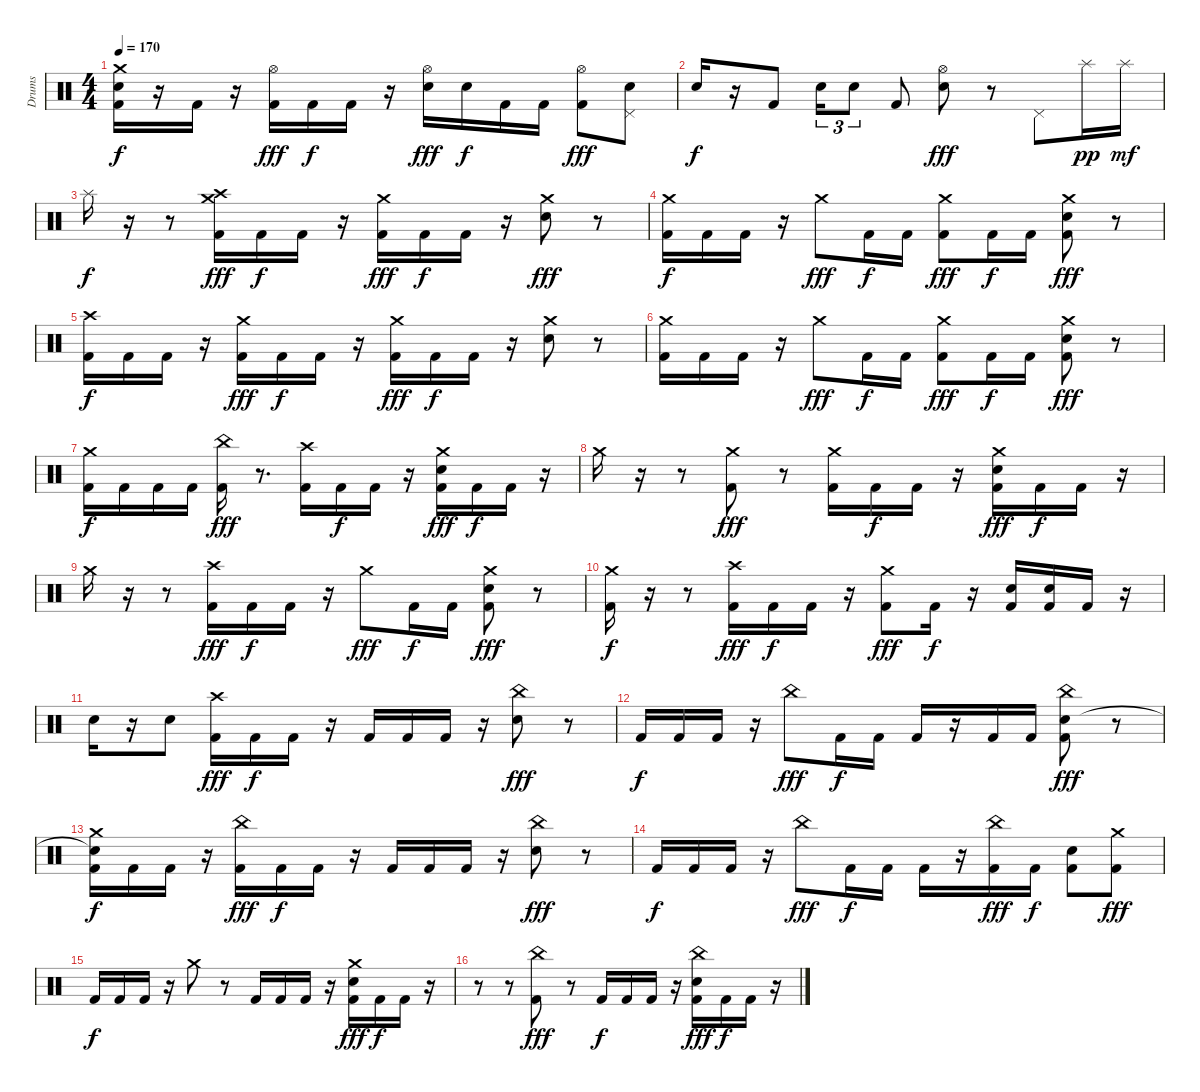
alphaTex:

\track ("Drums" "Drums") {instrument percussion}
\staff {score}
\articulation defaults
\ts (4 4)
\tempo 170
\clef neutral
\ks c
("Crash medium (hit)" "Electric Snare (hit)" "Kick (hit) 2").16{dy f} r.16 "Kick (hit) 2".16 r.16 ("Hi-Hat (open)" "Kick (hit) 2").16{dy fff} "Kick (hit) 2".16{dy f} "Kick (hit) 2".16 r.16 ("Hi-Hat (open)" "Electric Snare (hit)").16{dy fff} "Electric Snare (hit)".16{dy f} "Kick (hit) 2".16 "Kick (hit) 2".16 ("Hi-Hat (open)" "Kick (hit) 2").8{dy fff} ("Pedal Hi-Hat (hit)" "Electric Snare (hit)").8 |
"Electric Snare (hit)".16{dy f} r.16 "Kick (hit) 2".8 "Electric Snare (hit)".16{tu (3 2)} "Electric Snare (hit)".8{tu (3 2)} "Kick (hit) 2".8 ("Hi-Hat (open)" "Electric Snare (hit)").8{dy fff} r.8 "Pedal Hi-Hat (hit)".8 "Splash (hit)".16{dy pp} "Splash (hit)".16{dy mf} |
"Splash (hit)".16{dy f} r.16 r.8 ("Crash medium (hit)" "Crash high (hit)" "Kick (hit) 2").16{dy fff} "Kick (hit) 2".16{dy f} "Kick (hit) 2".16 r.16 ("Crash medium (hit)" "Kick (hit) 2").16{dy fff} "Kick (hit) 2".16{dy f} "Kick (hit) 2".16 r.16 ("Crash medium (hit)" "Electric Snare (hit)").8{dy fff} r.8 |
("Crash medium (hit)" "Kick (hit) 2").16{dy f} "Kick (hit) 2".16 "Kick (hit) 2".16 r.16 "Crash medium (hit)".8{dy fff} "Kick (hit) 2".16{dy f} "Kick (hit) 2".16 ("Crash medium (hit)" "Kick (hit) 2").8{dy fff} "Kick (hit) 2".16{dy f} "Kick (hit) 2".16 ("Crash medium (hit)" "Electric Snare (hit)" "Kick (hit) 2").8{dy fff} r.8 |
("Crash high (hit)" "Kick (hit) 2").16{dy f} "Kick (hit) 2".16 "Kick (hit) 2".16 r.16 ("Crash medium (hit)" "Kick (hit) 2").16{dy fff} "Kick (hit) 2".16{dy f} "Kick (hit) 2".16 r.16 ("Crash medium (hit)" "Kick (hit) 2").16{dy fff} "Kick (hit) 2".16{dy f} "Kick (hit) 2".16 r.16 ("Crash medium (hit)" "Electric Snare (hit)").8 r.8 |
("Crash medium (hit)" "Kick (hit) 2").16 "Kick (hit) 2".16 "Kick (hit) 2".16 r.16 "Crash medium (hit)".8{dy fff} "Kick (hit) 2".16{dy f} "Kick (hit) 2".16 ("Crash medium (hit)" "Kick (hit) 2").8{dy fff} "Kick (hit) 2".16{dy f} "Kick (hit) 2".16 ("Crash medium (hit)" "Electric Snare (hit)" "Kick (hit) 2").8{dy fff} r.8 |
("Crash medium (hit)" "Kick (hit) 2").16{dy f} "Kick (hit) 2".16 "Kick (hit) 2".16 "Kick (hit) 2".16 ("China (hit)" "Kick (hit) 2").16{dy fff} r.8{d} ("Crash high (hit)" "Kick (hit) 2").16 "Kick (hit) 2".16{dy f} "Kick (hit) 2".16 r.16 ("Crash medium (hit)" "Electric Snare (hit)" "Kick (hit) 2").16{dy fff} "Kick (hit) 2".16{dy f} "Kick (hit) 2".16 r.16 |
"Crash medium (hit)".16 r.16 r.8 ("Crash medium (hit)" "Kick (hit) 2").8{dy fff} r.8 ("Crash medium (hit)" "Kick (hit) 2").16 "Kick (hit) 2".16{dy f} "Kick (hit) 2".16 r.16 ("Crash medium (hit)" "Electric Snare (hit)" "Kick (hit) 2").16{dy fff} "Kick (hit) 2".16{dy f} "Kick (hit) 2".16 r.16 |
"Crash medium (hit)".16 r.16 r.8 ("Crash high (hit)" "Kick (hit) 2").16{dy fff} "Kick (hit) 2".16{dy f} "Kick (hit) 2".16 r.16 "Crash medium (hit)".8{dy fff} "Kick (hit) 2".16{dy f} "Kick (hit) 2".16 ("Crash medium (hit)" "Electric Snare (hit)" "Kick (hit) 2").8{dy fff} r.8 |
("Crash medium (hit)" "Kick (hit) 2").16{dy f} r.16 r.8 ("Crash high (hit)" "Kick (hit) 2").16{dy fff} "Kick (hit) 2".16{dy f} "Kick (hit) 2".16 r.16 ("Crash medium (hit)" "Kick (hit) 2").8{dy fff} "Kick (hit) 2".16{dy f} r.16 ("Electric Snare (hit)" "Kick (hit) 2").16 ("Electric Snare (hit)" "Kick (hit) 2").16 "Kick (hit) 2".16 r.16 |
"Electric Snare (hit)".16 r.16 "Electric Snare (hit)".8 ("Crash high (hit)" "Kick (hit) 2").16{dy fff} "Kick (hit) 2".16{dy f} "Kick (hit) 2".16 r.16 "Kick (hit) 2".16 "Kick (hit) 2".16 "Kick (hit) 2".16 r.16 ("China (hit)" "Electric Snare (hit)").8{dy fff} r.8 |
"Kick (hit) 2".16{dy f} "Kick (hit) 2".16 "Kick (hit) 2".16 r.16 "China (hit)".8{dy fff} "Kick (hit) 2".16{dy f} "Kick (hit) 2".16 "Kick (hit) 2".16 r.16 "Kick (hit) 2".16 "Kick (hit) 2".16 ("China (hit)" "Electric Snare (hit)" "Kick (hit) 2").8{dy fff} r.8 |
("Crash medium (hit)" "Snare (hit)"{t} "Kick (hit) 2").16{dy f} "Kick (hit) 2".16 "Kick (hit) 2".16 r.16 ("China (hit)" "Kick (hit) 2").16{dy fff} "Kick (hit) 2".16{dy f} "Kick (hit) 2".16 r.16 "Kick (hit) 2".16 "Kick (hit) 2".16 "Kick (hit) 2".16 r.16 ("China (hit)" "Electric Snare (hit)").8{dy fff} r.8 |
"Kick (hit) 2".16{dy f} "Kick (hit) 2".16 "Kick (hit) 2".16 r.16 "China (hit)".8{dy fff} "Kick (hit) 2".16{dy f} "Kick (hit) 2".16 "Kick (hit) 2".16 r.16 ("China (hit)" "Kick (hit) 2").16{dy fff} "Kick (hit) 2".16{dy f} ("Electric Snare (hit)" "Kick (hit) 2").8 ("Crash medium (hit)" "Kick (hit) 2").8{dy fff} |
"Kick (hit) 2".16{dy f} "Kick (hit) 2".16 "Kick (hit) 2".16 r.16 "Crash medium (hit)".8 r.8 "Kick (hit) 2".16 "Kick (hit) 2".16 "Kick (hit) 2".16 r.16 ("Crash medium (hit)" "Electric Snare (hit)" "Kick (hit) 2").16{dy fff} "Kick (hit) 2".16{dy f} "Kick (hit) 2".16 r.16 |
r.8 r.8 ("China (hit)" "Kick (hit) 2").8{dy fff} r.8 "Kick (hit) 2".16{dy f} "Kick (hit) 2".16 "Kick (hit) 2".16 r.16 ("China (hit)" "Electric Snare (hit)" "Kick (hit) 2").16{dy fff} "Kick (hit) 2".16{dy f} "Kick (hit) 2".16 r.16
